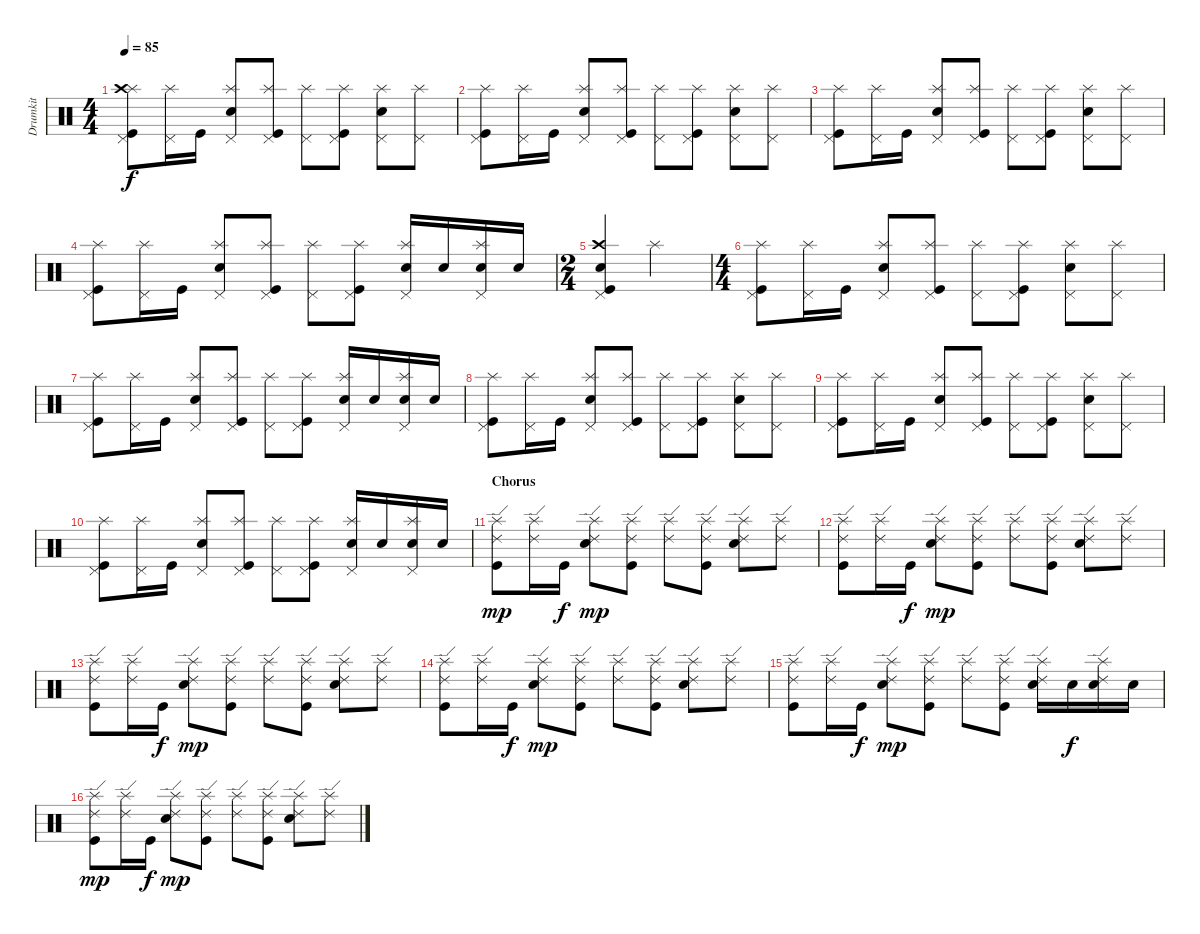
\track ("Drumkit" "Drumkit") {instrument percussion}
\staff {score}
\articulation defaults
\ts (4 4)
\tempo 85
\clef neutral
\ks c
("Pedal Hi-Hat (hit)" "Splash (hit)" "Crash high (hit)" "Kick (hit)").8{dy f} ("Pedal Hi-Hat (hit)" "Splash (hit)").16 "Kick (hit)".16 ("Pedal Hi-Hat (hit)" "Splash (hit)" "Snare (hit) 2").8 ("Pedal Hi-Hat (hit)" "Splash (hit)" "Kick (hit)").8 ("Pedal Hi-Hat (hit)" "Splash (hit)").8 ("Pedal Hi-Hat (hit)" "Splash (hit)" "Kick (hit)").8 ("Pedal Hi-Hat (hit)" "Splash (hit)" "Snare (hit) 2").8 ("Pedal Hi-Hat (hit)" "Splash (hit)").8 |
("Pedal Hi-Hat (hit)" "Splash (hit)" "Kick (hit)").8 ("Pedal Hi-Hat (hit)" "Splash (hit)").16 "Kick (hit)".16 ("Pedal Hi-Hat (hit)" "Splash (hit)" "Snare (hit) 2").8 ("Pedal Hi-Hat (hit)" "Splash (hit)" "Kick (hit)").8 ("Pedal Hi-Hat (hit)" "Splash (hit)").8 ("Pedal Hi-Hat (hit)" "Splash (hit)" "Kick (hit)").8 ("Pedal Hi-Hat (hit)" "Splash (hit)" "Snare (hit) 2").8 ("Pedal Hi-Hat (hit)" "Splash (hit)").8 |
("Pedal Hi-Hat (hit)" "Splash (hit)" "Kick (hit)").8 ("Pedal Hi-Hat (hit)" "Splash (hit)").16 "Kick (hit)".16 ("Pedal Hi-Hat (hit)" "Splash (hit)" "Snare (hit) 2").8 ("Pedal Hi-Hat (hit)" "Splash (hit)" "Kick (hit)").8 ("Pedal Hi-Hat (hit)" "Splash (hit)").8 ("Pedal Hi-Hat (hit)" "Splash (hit)" "Kick (hit)").8 ("Pedal Hi-Hat (hit)" "Splash (hit)" "Snare (hit) 2").8 ("Pedal Hi-Hat (hit)" "Splash (hit)").8 |
("Pedal Hi-Hat (hit)" "Splash (hit)" "Kick (hit)").8 ("Pedal Hi-Hat (hit)" "Splash (hit)").16 "Kick (hit)".16 ("Pedal Hi-Hat (hit)" "Splash (hit)" "Snare (hit) 2").8 ("Pedal Hi-Hat (hit)" "Splash (hit)" "Kick (hit)").8 ("Pedal Hi-Hat (hit)" "Splash (hit)").8 ("Pedal Hi-Hat (hit)" "Splash (hit)" "Kick (hit)").8 ("Pedal Hi-Hat (hit)" "Splash (hit)" "Snare (hit) 2").16 "Snare (hit) 2".16 ("Pedal Hi-Hat (hit)" "Splash (hit)" "Snare (hit) 2").16 "Snare (hit) 2".16 |
\ts (2 4)
("Pedal Hi-Hat (hit)" "Crash high (hit)" "Snare (hit) 2" "Kick (hit)").4 "Splash (hit)".4 |
\ts (4 4)
("Pedal Hi-Hat (hit)" "Splash (hit)" "Kick (hit)").8 ("Pedal Hi-Hat (hit)" "Splash (hit)").16 "Kick (hit)".16 ("Pedal Hi-Hat (hit)" "Splash (hit)" "Snare (hit) 2").8 ("Pedal Hi-Hat (hit)" "Splash (hit)" "Kick (hit)").8 ("Pedal Hi-Hat (hit)" "Splash (hit)").8 ("Pedal Hi-Hat (hit)" "Splash (hit)" "Kick (hit)").8 ("Pedal Hi-Hat (hit)" "Splash (hit)" "Snare (hit) 2").8 ("Pedal Hi-Hat (hit)" "Splash (hit)").8 |
("Pedal Hi-Hat (hit)" "Splash (hit)" "Kick (hit)").8 ("Pedal Hi-Hat (hit)" "Splash (hit)").16 "Kick (hit)".16 ("Pedal Hi-Hat (hit)" "Splash (hit)" "Snare (hit) 2").8 ("Pedal Hi-Hat (hit)" "Splash (hit)" "Kick (hit)").8 ("Pedal Hi-Hat (hit)" "Splash (hit)").8 ("Pedal Hi-Hat (hit)" "Splash (hit)" "Kick (hit)").8 ("Pedal Hi-Hat (hit)" "Splash (hit)" "Snare (hit) 2").16 "Snare (hit) 2".16 ("Pedal Hi-Hat (hit)" "Splash (hit)" "Snare (hit) 2").16 "Snare (hit) 2".16 |
("Pedal Hi-Hat (hit)" "Splash (hit)" "Kick (hit)").8 ("Pedal Hi-Hat (hit)" "Splash (hit)").16 "Kick (hit)".16 ("Pedal Hi-Hat (hit)" "Splash (hit)" "Snare (hit) 2").8 ("Pedal Hi-Hat (hit)" "Splash (hit)" "Kick (hit)").8 ("Pedal Hi-Hat (hit)" "Splash (hit)").8 ("Pedal Hi-Hat (hit)" "Splash (hit)" "Kick (hit)").8 ("Pedal Hi-Hat (hit)" "Splash (hit)" "Snare (hit) 2").8 ("Pedal Hi-Hat (hit)" "Splash (hit)").8 |
("Pedal Hi-Hat (hit)" "Splash (hit)" "Kick (hit)").8 ("Pedal Hi-Hat (hit)" "Splash (hit)").16 "Kick (hit)".16 ("Pedal Hi-Hat (hit)" "Splash (hit)" "Snare (hit) 2").8 ("Pedal Hi-Hat (hit)" "Splash (hit)" "Kick (hit)").8 ("Pedal Hi-Hat (hit)" "Splash (hit)").8 ("Pedal Hi-Hat (hit)" "Splash (hit)" "Kick (hit)").8 ("Pedal Hi-Hat (hit)" "Splash (hit)" "Snare (hit) 2").8 ("Pedal Hi-Hat (hit)" "Splash (hit)").8 |
("Pedal Hi-Hat (hit)" "Splash (hit)" "Kick (hit)").8 ("Pedal Hi-Hat (hit)" "Splash (hit)").16 "Kick (hit)".16 ("Pedal Hi-Hat (hit)" "Splash (hit)" "Snare (hit) 2").8 ("Pedal Hi-Hat (hit)" "Splash (hit)" "Kick (hit)").8 ("Pedal Hi-Hat (hit)" "Splash (hit)").8 ("Pedal Hi-Hat (hit)" "Splash (hit)" "Kick (hit)").8 ("Pedal Hi-Hat (hit)" "Splash (hit)" "Snare (hit) 2").16 "Snare (hit) 2".16 ("Pedal Hi-Hat (hit)" "Splash (hit)" "Snare (hit) 2").16 "Snare (hit) 2".16 |
\section ("" "Chorus")
("Splash (hit)" "Ride (edge) 2" "Kick (hit)").8{dy mp} ("Splash (hit)" "Ride (edge) 2").16 "Kick (hit)".16{dy f} ("Splash (hit)" "Ride (edge) 2" "Snare (hit) 2").8{dy mp} ("Splash (hit)" "Ride (edge) 2" "Kick (hit)").8 ("Splash (hit)" "Ride (edge) 2").8 ("Splash (hit)" "Ride (edge) 2" "Kick (hit)").8 ("Splash (hit)" "Ride (edge) 2" "Snare (hit) 2").8 ("Splash (hit)" "Ride (edge) 2").8 |
("Splash (hit)" "Ride (edge) 2" "Kick (hit)").8 ("Splash (hit)" "Ride (edge) 2").16 "Kick (hit)".16{dy f} ("Splash (hit)" "Ride (edge) 2" "Snare (hit) 2").8{dy mp} ("Splash (hit)" "Ride (edge) 2" "Kick (hit)").8 ("Splash (hit)" "Ride (edge) 2").8 ("Splash (hit)" "Ride (edge) 2" "Kick (hit)").8 ("Splash (hit)" "Ride (edge) 2" "Snare (hit) 2").8 ("Splash (hit)" "Ride (edge) 2").8 |
("Splash (hit)" "Ride (edge) 2" "Kick (hit)").8 ("Splash (hit)" "Ride (edge) 2").16 "Kick (hit)".16{dy f} ("Splash (hit)" "Ride (edge) 2" "Snare (hit) 2").8{dy mp} ("Splash (hit)" "Ride (edge) 2" "Kick (hit)").8 ("Splash (hit)" "Ride (edge) 2").8 ("Splash (hit)" "Ride (edge) 2" "Kick (hit)").8 ("Splash (hit)" "Ride (edge) 2" "Snare (hit) 2").8 ("Splash (hit)" "Ride (edge) 2").8 |
("Splash (hit)" "Ride (edge) 2" "Kick (hit)").8 ("Splash (hit)" "Ride (edge) 2").16 "Kick (hit)".16{dy f} ("Splash (hit)" "Ride (edge) 2" "Snare (hit) 2").8{dy mp} ("Splash (hit)" "Ride (edge) 2" "Kick (hit)").8 ("Splash (hit)" "Ride (edge) 2").8 ("Splash (hit)" "Ride (edge) 2" "Kick (hit)").8 ("Splash (hit)" "Ride (edge) 2" "Snare (hit) 2").8 ("Splash (hit)" "Ride (edge) 2").8 |
("Splash (hit)" "Ride (edge) 2" "Kick (hit)").8 ("Splash (hit)" "Ride (edge) 2").16 "Kick (hit)".16{dy f} ("Splash (hit)" "Ride (edge) 2" "Snare (hit) 2").8{dy mp} ("Splash (hit)" "Ride (edge) 2" "Kick (hit)").8 ("Splash (hit)" "Ride (edge) 2").8 ("Splash (hit)" "Ride (edge) 2" "Kick (hit)").8 ("Splash (hit)" "Ride (edge) 2" "Snare (hit) 2").16 "Snare (hit) 2".16{dy f} ("Splash (hit)" "Ride (edge) 2" "Snare (hit) 2").16 "Snare (hit) 2".16 |
("Splash (hit)" "Ride (edge) 2" "Kick (hit)").8{dy mp} ("Splash (hit)" "Ride (edge) 2").16 "Kick (hit)".16{dy f} ("Splash (hit)" "Ride (edge) 2" "Snare (hit) 2").8{dy mp} ("Splash (hit)" "Ride (edge) 2" "Kick (hit)").8 ("Splash (hit)" "Ride (edge) 2").8 ("Splash (hit)" "Ride (edge) 2" "Kick (hit)").8 ("Splash (hit)" "Ride (edge) 2" "Snare (hit) 2").8 ("Splash (hit)" "Ride (edge) 2").8
